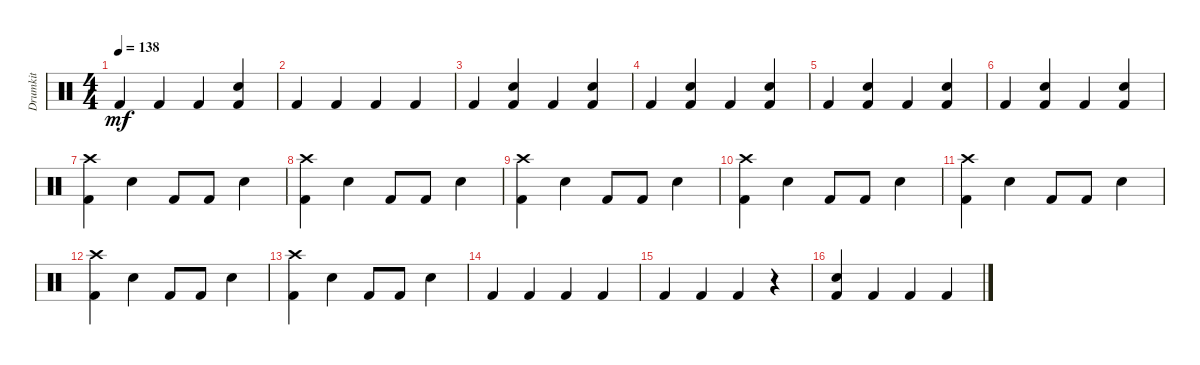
\track ("Drumkit" "Drumkit") {instrument percussion}
\staff {score}
\articulation defaults
\ts (4 4)
\tempo 138
\clef neutral
\ks c "Kick (hit) 2".4{dy mf} "Kick (hit) 2".4 "Kick (hit) 2".4
("Kick (hit) 2" "Snare (hit) 2").4 |
"Kick (hit) 2".4 "Kick (hit) 2".4 "Kick (hit) 2".4 "Kick (hit) 2".4 |
"Kick (hit) 2".4 ("Kick (hit) 2" "Snare (hit) 2").4 "Kick (hit) 2".4 ("Kick (hit) 2" "Snare (hit) 2").4 |
"Kick (hit) 2".4 ("Kick (hit) 2" "Snare (hit) 2").4 "Kick (hit) 2".4 ("Kick (hit) 2" "Snare (hit) 2").4 |
"Kick (hit) 2".4 ("Kick (hit) 2" "Snare (hit) 2").4 "Kick (hit) 2".4 ("Kick (hit) 2" "Snare (hit) 2").4 |
"Kick (hit) 2".4 ("Kick (hit) 2" "Snare (hit) 2").4 "Kick (hit) 2".4 ("Kick (hit) 2" "Snare (hit) 2").4 |
("Crash high (hit)" "Kick (hit) 2").4 "Snare (hit) 2".4 "Kick (hit) 2".8 "Kick (hit) 2".8 "Snare (hit) 2".4 |
("Crash high (hit)" "Kick (hit) 2").4 "Snare (hit) 2".4 "Kick (hit) 2".8 "Kick (hit) 2".8 "Snare (hit) 2".4 |
("Crash high (hit)" "Kick (hit) 2").4 "Snare (hit) 2".4 "Kick (hit) 2".8 "Kick (hit) 2".8 "Snare (hit) 2".4 |
("Crash high (hit)" "Kick (hit) 2").4 "Snare (hit) 2".4 "Kick (hit) 2".8 "Kick (hit) 2".8 "Snare (hit) 2".4 |
("Crash high (hit)" "Kick (hit) 2").4 "Snare (hit) 2".4 "Kick (hit) 2".8 "Kick (hit) 2".8 "Snare (hit) 2".4 |
("Crash high (hit)" "Kick (hit) 2").4 "Snare (hit) 2".4 "Kick (hit) 2".8 "Kick (hit) 2".8 "Snare (hit) 2".4 |
("Crash high (hit)" "Kick (hit) 2").4 "Snare (hit) 2".4 "Kick (hit) 2".8 "Kick (hit) 2".8 "Snare (hit) 2".4 |
"Kick (hit) 2".4 "Kick (hit) 2".4 "Kick (hit) 2".4 "Kick (hit) 2".4 |
"Kick (hit) 2".4 "Kick (hit) 2".4 "Kick (hit) 2".4 r.4 |
("Kick (hit) 2" "Snare (hit) 2").4 "Kick (hit) 2".4 "Kick (hit) 2".4 "Kick (hit) 2".4
